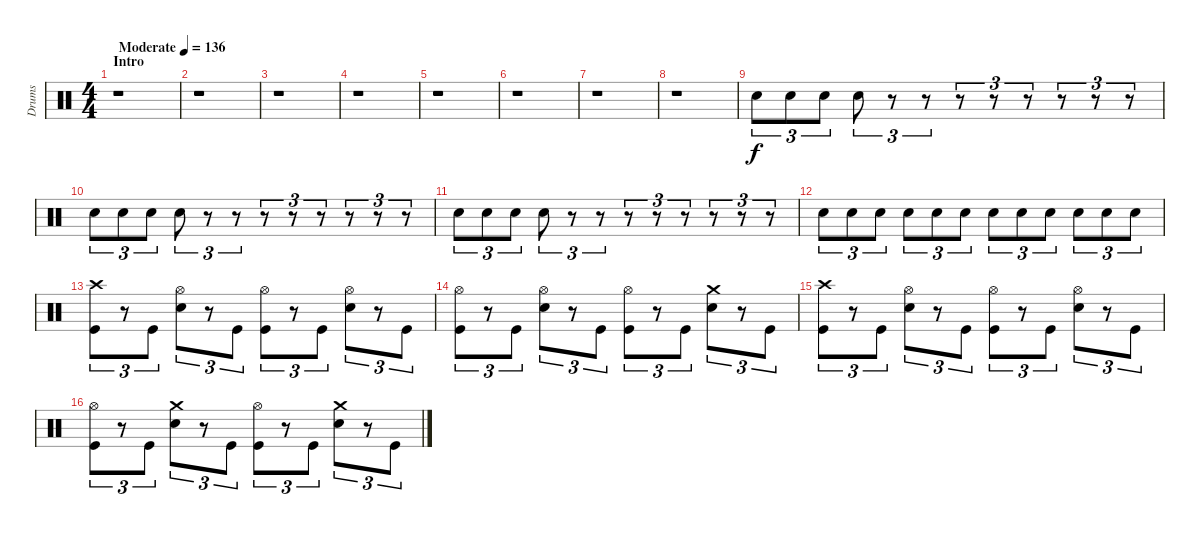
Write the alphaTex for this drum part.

\track ("Drums" "Drums") {instrument percussion}
\staff {score}
\articulation defaults
\ts (4 4)
\section ("" "Intro")
\tempo (136 "Moderate")
\clef neutral
\ks c
r.1{dy f} |
r.1 |
r.1 |
r.1 |
r.1 |
r.1 |
r.1 |
r.1 |
"Electric Snare (hit)".8{tu (3 2)} "Electric Snare (hit)".8{tu (3 2)} "Electric Snare (hit)".8{tu (3 2)} "Electric Snare (hit)".8{tu (3 2)} r.8{tu (3 2)} r.8{tu (3 2)} r.8{tu (3 2)} r.8{tu (3 2)} r.8{tu (3 2)} r.8{tu (3 2)} r.8{tu (3 2)} r.8{tu (3 2)} |
"Electric Snare (hit)".8{tu (3 2)} "Electric Snare (hit)".8{tu (3 2)} "Electric Snare (hit)".8{tu (3 2)} "Electric Snare (hit)".8{tu (3 2)} r.8{tu (3 2)} r.8{tu (3 2)} r.8{tu (3 2)} r.8{tu (3 2)} r.8{tu (3 2)} r.8{tu (3 2)} r.8{tu (3 2)} r.8{tu (3 2)} |
"Electric Snare (hit)".8{tu (3 2)} "Electric Snare (hit)".8{tu (3 2)} "Electric Snare (hit)".8{tu (3 2)} "Electric Snare (hit)".8{tu (3 2)} r.8{tu (3 2)} r.8{tu (3 2)} r.8{tu (3 2)} r.8{tu (3 2)} r.8{tu (3 2)} r.8{tu (3 2)} r.8{tu (3 2)} r.8{tu (3 2)} |
"Electric Snare (hit)".8{tu (3 2)} "Electric Snare (hit)".8{tu (3 2)} "Electric Snare (hit)".8{tu (3 2)} "Electric Snare (hit)".8{tu (3 2)} "Electric Snare (hit)".8{tu (3 2)} "Electric Snare (hit)".8{tu (3 2)} "Electric Snare (hit)".8{tu (3 2)} "Electric Snare (hit)".8{tu (3 2)} "Electric Snare (hit)".8{tu (3 2)} "Electric Snare (hit)".8{tu (3 2)} "Electric Snare (hit)".8{tu (3 2)} "Electric Snare (hit)".8{tu (3 2)} |
("Crash high (hit)" "Kick (hit)").8{tu (3 2)} r.8{tu (3 2)} "Kick (hit)".8{tu (3 2)} ("Hi-Hat (open)" "Electric Snare (hit)").8{tu (3 2)} r.8{tu (3 2)} "Kick (hit)".8{tu (3 2)} ("Hi-Hat (open)" "Kick (hit)").8{tu (3 2)} r.8{tu (3 2)} "Kick (hit)".8{tu (3 2)} ("Hi-Hat (open)" "Electric Snare (hit)").8{tu (3 2)} r.8{tu (3 2)} "Kick (hit)".8{tu (3 2)} |
("Hi-Hat (open)" "Kick (hit)").8{tu (3 2)} r.8{tu (3 2)} "Kick (hit)".8{tu (3 2)} ("Hi-Hat (open)" "Electric Snare (hit)").8{tu (3 2)} r.8{tu (3 2)} "Kick (hit)".8{tu (3 2)} ("Hi-Hat (open)" "Kick (hit)").8{tu (3 2)} r.8{tu (3 2)} "Kick (hit)".8{tu (3 2)} ("Crash medium (hit)" "Electric Snare (hit)").8{tu (3 2)} r.8{tu (3 2)} "Kick (hit)".8{tu (3 2)} |
("Crash high (hit)" "Kick (hit)").8{tu (3 2)} r.8{tu (3 2)} "Kick (hit)".8{tu (3 2)} ("Hi-Hat (open)" "Electric Snare (hit)").8{tu (3 2)} r.8{tu (3 2)} "Kick (hit)".8{tu (3 2)} ("Hi-Hat (open)" "Kick (hit)").8{tu (3 2)} r.8{tu (3 2)} "Kick (hit)".8{tu (3 2)} ("Hi-Hat (open)" "Electric Snare (hit)").8{tu (3 2)} r.8{tu (3 2)} "Kick (hit)".8{tu (3 2)} |
("Hi-Hat (open)" "Kick (hit)").8{tu (3 2)} r.8{tu (3 2)} "Kick (hit)".8{tu (3 2)} ("Crash medium (hit)" "Electric Snare (hit)").8{tu (3 2)} r.8{tu (3 2)} "Kick (hit)".8{tu (3 2)} ("Hi-Hat (open)" "Kick (hit)").8{tu (3 2)} r.8{tu (3 2)} "Kick (hit)".8{tu (3 2)} ("Crash medium (hit)" "Electric Snare (hit)").8{tu (3 2)} r.8{tu (3 2)} "Kick (hit)".8{tu (3 2)}
